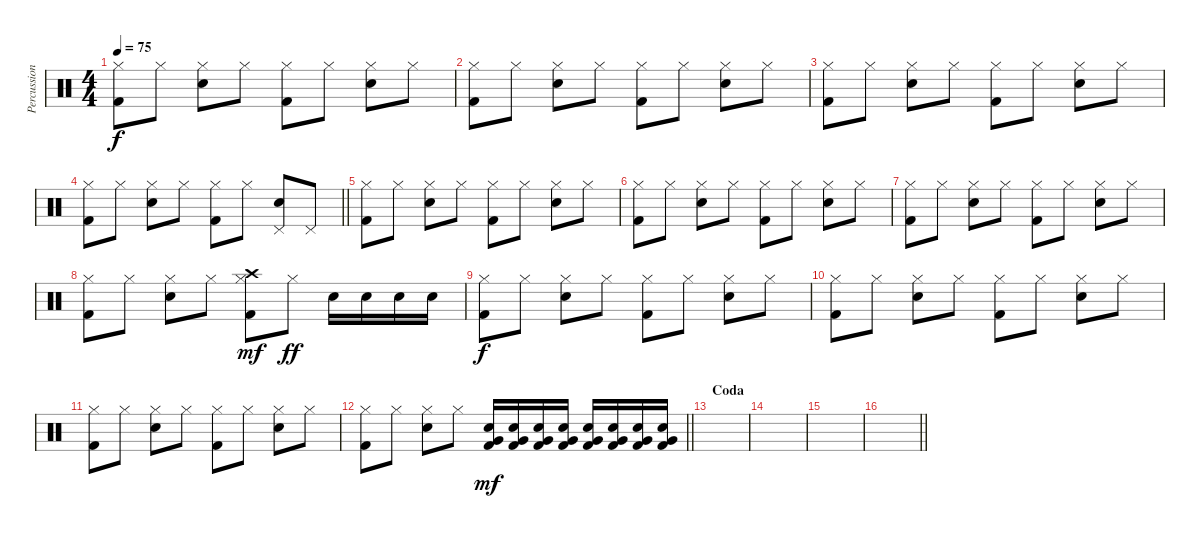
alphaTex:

\track ("Percussion" "Percussion") {instrument percussion}
\staff {score}
\articulation defaults
\ts (4 4)
\tempo 75
\clef neutral
\ks c
("Hi-Hat (closed)" "Kick (hit) 2").8{dy f} "Hi-Hat (closed)".8 ("Hi-Hat (closed)" "Snare (hit) 2").8 "Hi-Hat (closed)".8 ("Hi-Hat (closed)" "Kick (hit) 2").8 "Hi-Hat (closed)".8 ("Hi-Hat (closed)" "Snare (hit) 2").8 "Hi-Hat (closed)".8 |
("Hi-Hat (closed)" "Kick (hit) 2").8 "Hi-Hat (closed)".8 ("Hi-Hat (closed)" "Snare (hit) 2").8 "Hi-Hat (closed)".8 ("Hi-Hat (closed)" "Kick (hit) 2").8 "Hi-Hat (closed)".8 ("Hi-Hat (closed)" "Snare (hit) 2").8 "Hi-Hat (closed)".8 |
("Hi-Hat (closed)" "Kick (hit) 2").8 "Hi-Hat (closed)".8 ("Hi-Hat (closed)" "Snare (hit) 2").8 "Hi-Hat (closed)".8 ("Hi-Hat (closed)" "Kick (hit) 2").8 "Hi-Hat (closed)".8 ("Hi-Hat (closed)" "Snare (hit) 2").8 "Hi-Hat (closed)".8 |
\barLineRight lightlight
("Hi-Hat (closed)" "Kick (hit) 2").8 "Hi-Hat (closed)".8 ("Hi-Hat (closed)" "Snare (hit) 2").8 "Hi-Hat (closed)".8 ("Hi-Hat (closed)" "Kick (hit) 2").8 "Hi-Hat (closed)".8 ("Pedal Hi-Hat (hit)" "Snare (hit) 2").8 "Pedal Hi-Hat (hit)".8 |
("Hi-Hat (closed)" "Kick (hit) 2").8 "Hi-Hat (closed)".8 ("Hi-Hat (closed)" "Snare (hit) 2").8 "Hi-Hat (closed)".8 ("Hi-Hat (closed)" "Kick (hit) 2").8 "Hi-Hat (closed)".8 ("Hi-Hat (closed)" "Snare (hit) 2").8 "Hi-Hat (closed)".8 |
("Hi-Hat (closed)" "Kick (hit) 2").8 "Hi-Hat (closed)".8 ("Hi-Hat (closed)" "Snare (hit) 2").8 "Hi-Hat (closed)".8 ("Hi-Hat (closed)" "Kick (hit) 2").8 "Hi-Hat (closed)".8 ("Hi-Hat (closed)" "Snare (hit) 2").8 "Hi-Hat (closed)".8 |
("Hi-Hat (closed)" "Kick (hit) 2").8 "Hi-Hat (closed)".8 ("Hi-Hat (closed)" "Snare (hit) 2").8 "Hi-Hat (closed)".8 ("Hi-Hat (closed)" "Kick (hit) 2").8 "Hi-Hat (closed)".8 ("Hi-Hat (closed)" "Snare (hit) 2").8 "Hi-Hat (closed)".8 |
("Hi-Hat (closed)" "Kick (hit) 2").8 "Hi-Hat (closed)".8 ("Hi-Hat (closed)" "Snare (hit) 2").8 "Hi-Hat (closed)".8 ("Hi-Hat (closed)" "Kick (hit) 2" "Crash high (hit)").8{dy mf} "Hi-Hat (closed)".8{dy ff} "Snare (hit) 2".16 "Snare (hit) 2".16 "Snare (hit) 2".16 "Snare (hit) 2".16 |
("Hi-Hat (closed)" "Kick (hit) 2").8{dy f} "Hi-Hat (closed)".8 ("Hi-Hat (closed)" "Snare (hit) 2").8 "Hi-Hat (closed)".8 ("Hi-Hat (closed)" "Kick (hit) 2").8 "Hi-Hat (closed)".8 ("Hi-Hat (closed)" "Snare (hit) 2").8 "Hi-Hat (closed)".8 |
("Hi-Hat (closed)" "Kick (hit) 2").8 "Hi-Hat (closed)".8 ("Hi-Hat (closed)" "Snare (hit) 2").8 "Hi-Hat (closed)".8 ("Hi-Hat (closed)" "Kick (hit) 2").8 "Hi-Hat (closed)".8 ("Hi-Hat (closed)" "Snare (hit) 2").8 "Hi-Hat (closed)".8 |
("Hi-Hat (closed)" "Kick (hit) 2").8 "Hi-Hat (closed)".8 ("Hi-Hat (closed)" "Snare (hit) 2").8 "Hi-Hat (closed)".8 ("Hi-Hat (closed)" "Kick (hit) 2").8 "Hi-Hat (closed)".8 ("Hi-Hat (closed)" "Snare (hit) 2").8 "Hi-Hat (closed)".8 |
\barLineRight lightlight
("Hi-Hat (closed)" "Kick (hit) 2").8 "Hi-Hat (closed)".8 ("Hi-Hat (closed)" "Snare (hit) 2").8 "Hi-Hat (closed)".8 ("Very Low Tom (hit)" "Kick (hit) 2" "Snare (hit) 2").16{dy mf} ("Very Low Tom (hit)" "Kick (hit) 2" "Snare (hit) 2").16 ("Very Low Tom (hit)" "Kick (hit) 2" "Snare (hit) 2").16 ("Very Low Tom (hit)" "Kick (hit) 2" "Snare (hit) 2").16 ("Very Low Tom (hit)" "Kick (hit) 2" "Snare (hit) 2").16 ("Very Low Tom (hit)" "Kick (hit) 2" "Snare (hit) 2").16 ("Very Low Tom (hit)" "Kick (hit) 2" "Snare (hit) 2").16 ("Very Low Tom (hit)" "Kick (hit) 2" "Snare (hit) 2").16 |
\section ("" "Coda")
|
|
|
\barLineRight lightlight
